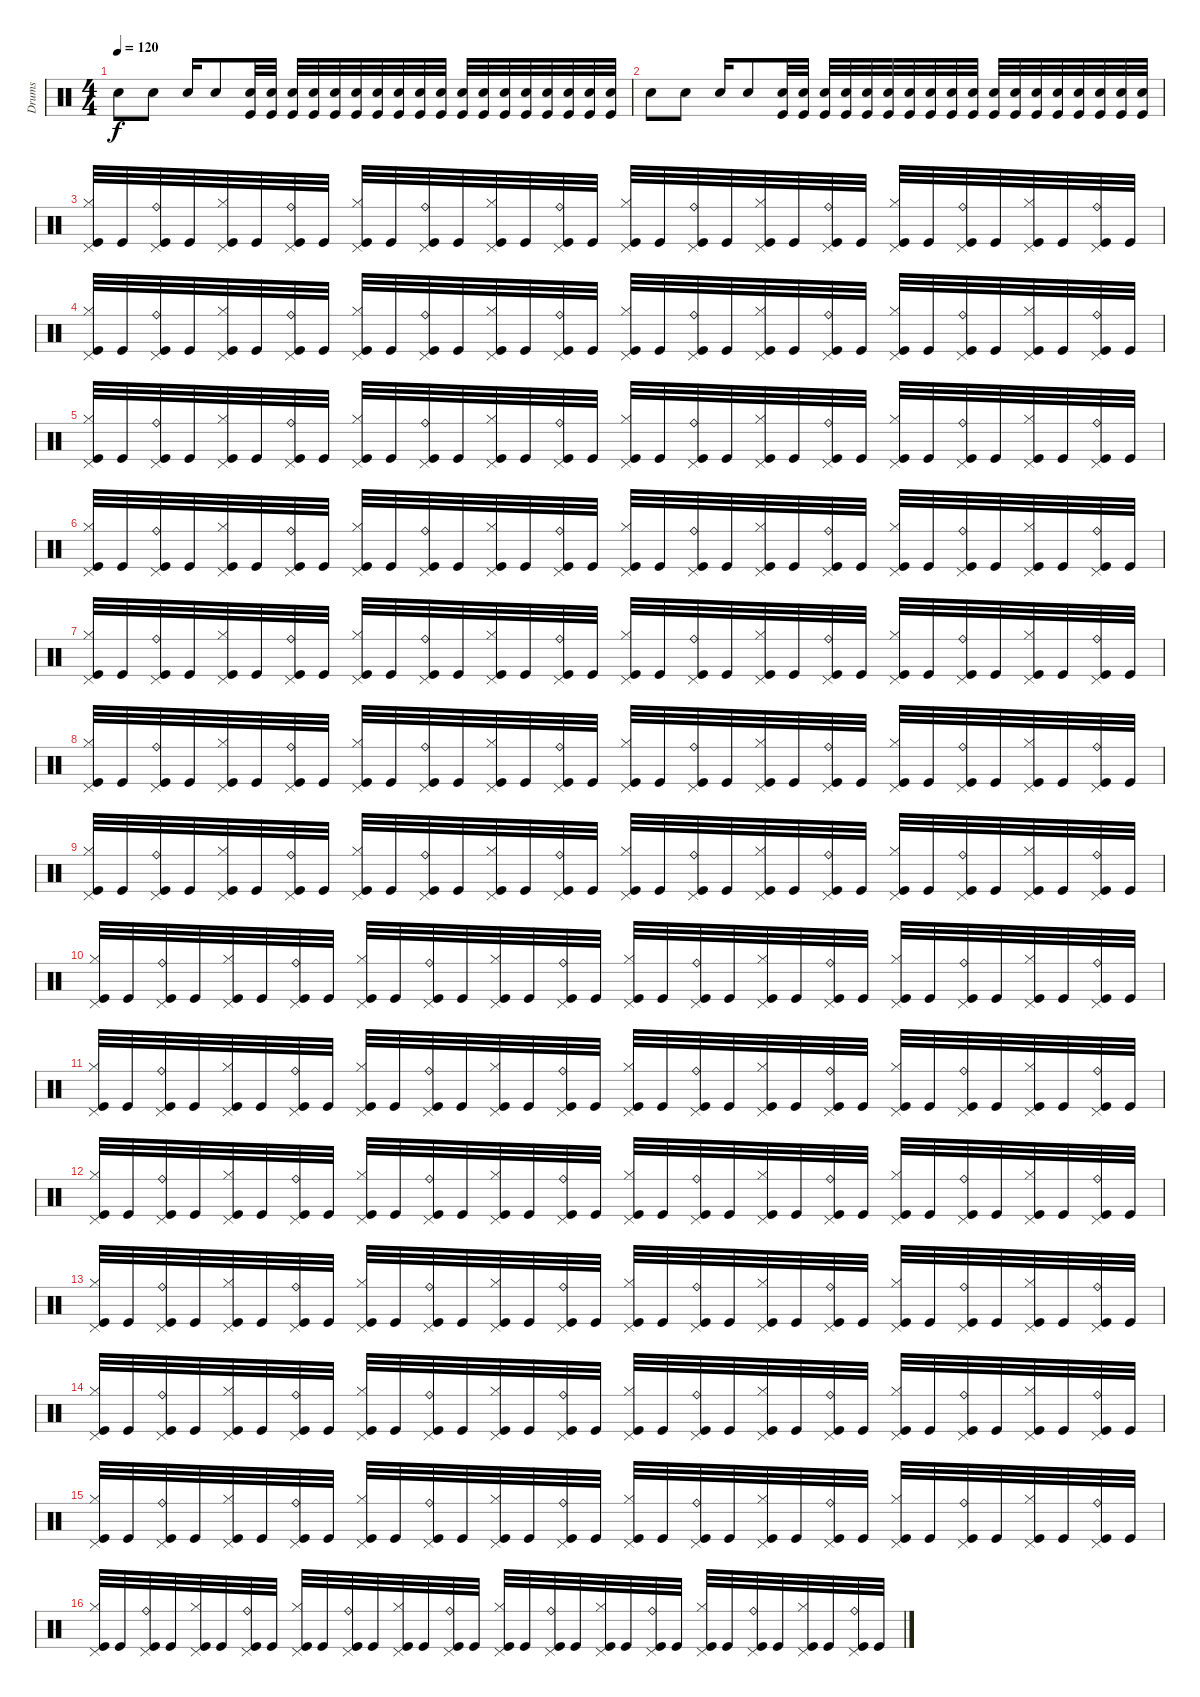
\track ("Drums" "Drums") {instrument percussion}
\staff {score}
\articulation defaults
\ts (4 4)
\tempo 120
\clef neutral
\ks c "Electric Snare (hit)".8{dy f} "Electric Snare (hit)".8 "Electric Snare (hit)".16 "Electric Snare (hit)".8
("Kick (hit)" "Electric Snare (hit)").32 ("Kick (hit)" "Electric Snare (hit)").32 ("Kick (hit)" "Electric Snare (hit)").32 ("Kick (hit)" "Electric Snare (hit)").32 ("Kick (hit)" "Electric Snare (hit)").32 ("Kick (hit)" "Electric Snare (hit)").32 ("Kick (hit)" "Electric Snare (hit)").32 ("Kick (hit)" "Electric Snare (hit)").32 ("Kick (hit)" "Electric Snare (hit)").32 ("Kick (hit)" "Electric Snare (hit)").32 ("Kick (hit)" "Electric Snare (hit)").32 ("Kick (hit)" "Electric Snare (hit)").32 ("Kick (hit)" "Electric Snare (hit)").32 ("Kick (hit)" "Electric Snare (hit)").32 ("Kick (hit)" "Electric Snare (hit)").32 ("Kick (hit)" "Electric Snare (hit)").32 ("Kick (hit)" "Electric Snare (hit)").32 ("Kick (hit)" "Electric Snare (hit)").32 |
"Electric Snare (hit)".8 "Electric Snare (hit)".8 "Electric Snare (hit)".16 "Electric Snare (hit)".8 ("Kick (hit)" "Electric Snare (hit)").32 ("Kick (hit)" "Electric Snare (hit)").32 ("Kick (hit)" "Electric Snare (hit)").32 ("Kick (hit)" "Electric Snare (hit)").32 ("Kick (hit)" "Electric Snare (hit)").32 ("Kick (hit)" "Electric Snare (hit)").32 ("Kick (hit)" "Electric Snare (hit)").32 ("Kick (hit)" "Electric Snare (hit)").32 ("Kick (hit)" "Electric Snare (hit)").32 ("Kick (hit)" "Electric Snare (hit)").32 ("Kick (hit)" "Electric Snare (hit)").32 ("Kick (hit)" "Electric Snare (hit)").32 ("Kick (hit)" "Electric Snare (hit)").32 ("Kick (hit)" "Electric Snare (hit)").32 ("Kick (hit)" "Electric Snare (hit)").32 ("Kick (hit)" "Electric Snare (hit)").32 ("Kick (hit)" "Electric Snare (hit)").32 ("Kick (hit)" "Electric Snare (hit)").32 |
("Hi-Hat (closed)" "Pedal Hi-Hat (hit)" "Kick (hit)").32 "Kick (hit)".32 ("Ride (bell)" "Pedal Hi-Hat (hit)" "Kick (hit)").32 "Kick (hit)".32 ("Hi-Hat (closed)" "Pedal Hi-Hat (hit)" "Kick (hit)").32 "Kick (hit)".32 ("Ride (bell)" "Pedal Hi-Hat (hit)" "Kick (hit)").32 "Kick (hit)".32 ("Hi-Hat (closed)" "Pedal Hi-Hat (hit)" "Kick (hit)").32 "Kick (hit)".32 ("Ride (bell)" "Pedal Hi-Hat (hit)" "Kick (hit)").32 "Kick (hit)".32 ("Hi-Hat (closed)" "Pedal Hi-Hat (hit)" "Kick (hit)").32 "Kick (hit)".32 ("Ride (bell)" "Pedal Hi-Hat (hit)" "Kick (hit)").32 "Kick (hit)".32 ("Hi-Hat (closed)" "Pedal Hi-Hat (hit)" "Kick (hit)").32 "Kick (hit)".32 ("Ride (bell)" "Pedal Hi-Hat (hit)" "Kick (hit)").32 "Kick (hit)".32 ("Hi-Hat (closed)" "Pedal Hi-Hat (hit)" "Kick (hit)").32 "Kick (hit)".32 ("Ride (bell)" "Pedal Hi-Hat (hit)" "Kick (hit)").32 "Kick (hit)".32 ("Hi-Hat (closed)" "Pedal Hi-Hat (hit)" "Kick (hit)").32 "Kick (hit)".32 ("Ride (bell)" "Pedal Hi-Hat (hit)" "Kick (hit)").32 "Kick (hit)".32 ("Hi-Hat (closed)" "Pedal Hi-Hat (hit)" "Kick (hit)").32 "Kick (hit)".32 ("Ride (bell)" "Pedal Hi-Hat (hit)" "Kick (hit)").32 "Kick (hit)".32 |
("Hi-Hat (closed)" "Pedal Hi-Hat (hit)" "Kick (hit)").32 "Kick (hit)".32 ("Ride (bell)" "Pedal Hi-Hat (hit)" "Kick (hit)").32 "Kick (hit)".32 ("Hi-Hat (closed)" "Pedal Hi-Hat (hit)" "Kick (hit)").32 "Kick (hit)".32 ("Ride (bell)" "Pedal Hi-Hat (hit)" "Kick (hit)").32 "Kick (hit)".32 ("Hi-Hat (closed)" "Pedal Hi-Hat (hit)" "Kick (hit)").32 "Kick (hit)".32 ("Ride (bell)" "Pedal Hi-Hat (hit)" "Kick (hit)").32 "Kick (hit)".32 ("Hi-Hat (closed)" "Pedal Hi-Hat (hit)" "Kick (hit)").32 "Kick (hit)".32 ("Ride (bell)" "Pedal Hi-Hat (hit)" "Kick (hit)").32 "Kick (hit)".32 ("Hi-Hat (closed)" "Pedal Hi-Hat (hit)" "Kick (hit)").32 "Kick (hit)".32 ("Ride (bell)" "Pedal Hi-Hat (hit)" "Kick (hit)").32 "Kick (hit)".32 ("Hi-Hat (closed)" "Pedal Hi-Hat (hit)" "Kick (hit)").32 "Kick (hit)".32 ("Ride (bell)" "Pedal Hi-Hat (hit)" "Kick (hit)").32 "Kick (hit)".32 ("Hi-Hat (closed)" "Pedal Hi-Hat (hit)" "Kick (hit)").32 "Kick (hit)".32 ("Ride (bell)" "Pedal Hi-Hat (hit)" "Kick (hit)").32 "Kick (hit)".32 ("Hi-Hat (closed)" "Pedal Hi-Hat (hit)" "Kick (hit)").32 "Kick (hit)".32 ("Ride (bell)" "Pedal Hi-Hat (hit)" "Kick (hit)").32 "Kick (hit)".32 |
("Hi-Hat (closed)" "Pedal Hi-Hat (hit)" "Kick (hit)").32 "Kick (hit)".32 ("Ride (bell)" "Pedal Hi-Hat (hit)" "Kick (hit)").32 "Kick (hit)".32 ("Hi-Hat (closed)" "Pedal Hi-Hat (hit)" "Kick (hit)").32 "Kick (hit)".32 ("Ride (bell)" "Pedal Hi-Hat (hit)" "Kick (hit)").32 "Kick (hit)".32 ("Hi-Hat (closed)" "Pedal Hi-Hat (hit)" "Kick (hit)").32 "Kick (hit)".32 ("Ride (bell)" "Pedal Hi-Hat (hit)" "Kick (hit)").32 "Kick (hit)".32 ("Hi-Hat (closed)" "Pedal Hi-Hat (hit)" "Kick (hit)").32 "Kick (hit)".32 ("Ride (bell)" "Pedal Hi-Hat (hit)" "Kick (hit)").32 "Kick (hit)".32 ("Hi-Hat (closed)" "Pedal Hi-Hat (hit)" "Kick (hit)").32 "Kick (hit)".32 ("Ride (bell)" "Pedal Hi-Hat (hit)" "Kick (hit)").32 "Kick (hit)".32 ("Hi-Hat (closed)" "Pedal Hi-Hat (hit)" "Kick (hit)").32 "Kick (hit)".32 ("Ride (bell)" "Pedal Hi-Hat (hit)" "Kick (hit)").32 "Kick (hit)".32 ("Hi-Hat (closed)" "Pedal Hi-Hat (hit)" "Kick (hit)").32 "Kick (hit)".32 ("Ride (bell)" "Pedal Hi-Hat (hit)" "Kick (hit)").32 "Kick (hit)".32 ("Hi-Hat (closed)" "Pedal Hi-Hat (hit)" "Kick (hit)").32 "Kick (hit)".32 ("Ride (bell)" "Pedal Hi-Hat (hit)" "Kick (hit)").32 "Kick (hit)".32 |
("Hi-Hat (closed)" "Pedal Hi-Hat (hit)" "Kick (hit)").32 "Kick (hit)".32 ("Ride (bell)" "Pedal Hi-Hat (hit)" "Kick (hit)").32 "Kick (hit)".32 ("Hi-Hat (closed)" "Pedal Hi-Hat (hit)" "Kick (hit)").32 "Kick (hit)".32 ("Ride (bell)" "Pedal Hi-Hat (hit)" "Kick (hit)").32 "Kick (hit)".32 ("Hi-Hat (closed)" "Pedal Hi-Hat (hit)" "Kick (hit)").32 "Kick (hit)".32 ("Ride (bell)" "Pedal Hi-Hat (hit)" "Kick (hit)").32 "Kick (hit)".32 ("Hi-Hat (closed)" "Pedal Hi-Hat (hit)" "Kick (hit)").32 "Kick (hit)".32 ("Ride (bell)" "Pedal Hi-Hat (hit)" "Kick (hit)").32 "Kick (hit)".32 ("Hi-Hat (closed)" "Pedal Hi-Hat (hit)" "Kick (hit)").32 "Kick (hit)".32 ("Ride (bell)" "Pedal Hi-Hat (hit)" "Kick (hit)").32 "Kick (hit)".32 ("Hi-Hat (closed)" "Pedal Hi-Hat (hit)" "Kick (hit)").32 "Kick (hit)".32 ("Ride (bell)" "Pedal Hi-Hat (hit)" "Kick (hit)").32 "Kick (hit)".32 ("Hi-Hat (closed)" "Pedal Hi-Hat (hit)" "Kick (hit)").32 "Kick (hit)".32 ("Ride (bell)" "Pedal Hi-Hat (hit)" "Kick (hit)").32 "Kick (hit)".32 ("Hi-Hat (closed)" "Pedal Hi-Hat (hit)" "Kick (hit)").32 "Kick (hit)".32 ("Ride (bell)" "Pedal Hi-Hat (hit)" "Kick (hit)").32 "Kick (hit)".32 |
("Hi-Hat (closed)" "Pedal Hi-Hat (hit)" "Kick (hit)").32 "Kick (hit)".32 ("Ride (bell)" "Pedal Hi-Hat (hit)" "Kick (hit)").32 "Kick (hit)".32 ("Hi-Hat (closed)" "Pedal Hi-Hat (hit)" "Kick (hit)").32 "Kick (hit)".32 ("Ride (bell)" "Pedal Hi-Hat (hit)" "Kick (hit)").32 "Kick (hit)".32 ("Hi-Hat (closed)" "Pedal Hi-Hat (hit)" "Kick (hit)").32 "Kick (hit)".32 ("Ride (bell)" "Pedal Hi-Hat (hit)" "Kick (hit)").32 "Kick (hit)".32 ("Hi-Hat (closed)" "Pedal Hi-Hat (hit)" "Kick (hit)").32 "Kick (hit)".32 ("Ride (bell)" "Pedal Hi-Hat (hit)" "Kick (hit)").32 "Kick (hit)".32 ("Hi-Hat (closed)" "Pedal Hi-Hat (hit)" "Kick (hit)").32 "Kick (hit)".32 ("Ride (bell)" "Pedal Hi-Hat (hit)" "Kick (hit)").32 "Kick (hit)".32 ("Hi-Hat (closed)" "Pedal Hi-Hat (hit)" "Kick (hit)").32 "Kick (hit)".32 ("Ride (bell)" "Pedal Hi-Hat (hit)" "Kick (hit)").32 "Kick (hit)".32 ("Hi-Hat (closed)" "Pedal Hi-Hat (hit)" "Kick (hit)").32 "Kick (hit)".32 ("Ride (bell)" "Pedal Hi-Hat (hit)" "Kick (hit)").32 "Kick (hit)".32 ("Hi-Hat (closed)" "Pedal Hi-Hat (hit)" "Kick (hit)").32 "Kick (hit)".32 ("Ride (bell)" "Pedal Hi-Hat (hit)" "Kick (hit)").32 "Kick (hit)".32 |
("Hi-Hat (closed)" "Pedal Hi-Hat (hit)" "Kick (hit)").32 "Kick (hit)".32 ("Ride (bell)" "Pedal Hi-Hat (hit)" "Kick (hit)").32 "Kick (hit)".32 ("Hi-Hat (closed)" "Pedal Hi-Hat (hit)" "Kick (hit)").32 "Kick (hit)".32 ("Ride (bell)" "Pedal Hi-Hat (hit)" "Kick (hit)").32 "Kick (hit)".32 ("Hi-Hat (closed)" "Pedal Hi-Hat (hit)" "Kick (hit)").32 "Kick (hit)".32 ("Ride (bell)" "Pedal Hi-Hat (hit)" "Kick (hit)").32 "Kick (hit)".32 ("Hi-Hat (closed)" "Pedal Hi-Hat (hit)" "Kick (hit)").32 "Kick (hit)".32 ("Ride (bell)" "Pedal Hi-Hat (hit)" "Kick (hit)").32 "Kick (hit)".32 ("Hi-Hat (closed)" "Pedal Hi-Hat (hit)" "Kick (hit)").32 "Kick (hit)".32 ("Ride (bell)" "Pedal Hi-Hat (hit)" "Kick (hit)").32 "Kick (hit)".32 ("Hi-Hat (closed)" "Pedal Hi-Hat (hit)" "Kick (hit)").32 "Kick (hit)".32 ("Ride (bell)" "Pedal Hi-Hat (hit)" "Kick (hit)").32 "Kick (hit)".32 ("Hi-Hat (closed)" "Pedal Hi-Hat (hit)" "Kick (hit)").32 "Kick (hit)".32 ("Ride (bell)" "Pedal Hi-Hat (hit)" "Kick (hit)").32 "Kick (hit)".32 ("Hi-Hat (closed)" "Pedal Hi-Hat (hit)" "Kick (hit)").32 "Kick (hit)".32 ("Ride (bell)" "Pedal Hi-Hat (hit)" "Kick (hit)").32 "Kick (hit)".32 |
("Hi-Hat (closed)" "Pedal Hi-Hat (hit)" "Kick (hit)").32 "Kick (hit)".32 ("Ride (bell)" "Pedal Hi-Hat (hit)" "Kick (hit)").32 "Kick (hit)".32 ("Hi-Hat (closed)" "Pedal Hi-Hat (hit)" "Kick (hit)").32 "Kick (hit)".32 ("Ride (bell)" "Pedal Hi-Hat (hit)" "Kick (hit)").32 "Kick (hit)".32 ("Hi-Hat (closed)" "Pedal Hi-Hat (hit)" "Kick (hit)").32 "Kick (hit)".32 ("Ride (bell)" "Pedal Hi-Hat (hit)" "Kick (hit)").32 "Kick (hit)".32 ("Hi-Hat (closed)" "Pedal Hi-Hat (hit)" "Kick (hit)").32 "Kick (hit)".32 ("Ride (bell)" "Pedal Hi-Hat (hit)" "Kick (hit)").32 "Kick (hit)".32 ("Hi-Hat (closed)" "Pedal Hi-Hat (hit)" "Kick (hit)").32 "Kick (hit)".32 ("Ride (bell)" "Pedal Hi-Hat (hit)" "Kick (hit)").32 "Kick (hit)".32 ("Hi-Hat (closed)" "Pedal Hi-Hat (hit)" "Kick (hit)").32 "Kick (hit)".32 ("Ride (bell)" "Pedal Hi-Hat (hit)" "Kick (hit)").32 "Kick (hit)".32 ("Hi-Hat (closed)" "Pedal Hi-Hat (hit)" "Kick (hit)").32 "Kick (hit)".32 ("Ride (bell)" "Pedal Hi-Hat (hit)" "Kick (hit)").32 "Kick (hit)".32 ("Hi-Hat (closed)" "Pedal Hi-Hat (hit)" "Kick (hit)").32 "Kick (hit)".32 ("Ride (bell)" "Pedal Hi-Hat (hit)" "Kick (hit)").32 "Kick (hit)".32 |
("Hi-Hat (closed)" "Pedal Hi-Hat (hit)" "Kick (hit)").32 "Kick (hit)".32 ("Ride (bell)" "Pedal Hi-Hat (hit)" "Kick (hit)").32 "Kick (hit)".32 ("Hi-Hat (closed)" "Pedal Hi-Hat (hit)" "Kick (hit)").32 "Kick (hit)".32 ("Ride (bell)" "Pedal Hi-Hat (hit)" "Kick (hit)").32 "Kick (hit)".32 ("Hi-Hat (closed)" "Pedal Hi-Hat (hit)" "Kick (hit)").32 "Kick (hit)".32 ("Ride (bell)" "Pedal Hi-Hat (hit)" "Kick (hit)").32 "Kick (hit)".32 ("Hi-Hat (closed)" "Pedal Hi-Hat (hit)" "Kick (hit)").32 "Kick (hit)".32 ("Ride (bell)" "Pedal Hi-Hat (hit)" "Kick (hit)").32 "Kick (hit)".32 ("Hi-Hat (closed)" "Pedal Hi-Hat (hit)" "Kick (hit)").32 "Kick (hit)".32 ("Ride (bell)" "Pedal Hi-Hat (hit)" "Kick (hit)").32 "Kick (hit)".32 ("Hi-Hat (closed)" "Pedal Hi-Hat (hit)" "Kick (hit)").32 "Kick (hit)".32 ("Ride (bell)" "Pedal Hi-Hat (hit)" "Kick (hit)").32 "Kick (hit)".32 ("Hi-Hat (closed)" "Pedal Hi-Hat (hit)" "Kick (hit)").32 "Kick (hit)".32 ("Ride (bell)" "Pedal Hi-Hat (hit)" "Kick (hit)").32 "Kick (hit)".32 ("Hi-Hat (closed)" "Pedal Hi-Hat (hit)" "Kick (hit)").32 "Kick (hit)".32 ("Ride (bell)" "Pedal Hi-Hat (hit)" "Kick (hit)").32 "Kick (hit)".32 |
("Hi-Hat (closed)" "Pedal Hi-Hat (hit)" "Kick (hit)").32 "Kick (hit)".32 ("Ride (bell)" "Pedal Hi-Hat (hit)" "Kick (hit)").32 "Kick (hit)".32 ("Hi-Hat (closed)" "Pedal Hi-Hat (hit)" "Kick (hit)").32 "Kick (hit)".32 ("Ride (bell)" "Pedal Hi-Hat (hit)" "Kick (hit)").32 "Kick (hit)".32 ("Hi-Hat (closed)" "Pedal Hi-Hat (hit)" "Kick (hit)").32 "Kick (hit)".32 ("Ride (bell)" "Pedal Hi-Hat (hit)" "Kick (hit)").32 "Kick (hit)".32 ("Hi-Hat (closed)" "Pedal Hi-Hat (hit)" "Kick (hit)").32 "Kick (hit)".32 ("Ride (bell)" "Pedal Hi-Hat (hit)" "Kick (hit)").32 "Kick (hit)".32 ("Hi-Hat (closed)" "Pedal Hi-Hat (hit)" "Kick (hit)").32 "Kick (hit)".32 ("Ride (bell)" "Pedal Hi-Hat (hit)" "Kick (hit)").32 "Kick (hit)".32 ("Hi-Hat (closed)" "Pedal Hi-Hat (hit)" "Kick (hit)").32 "Kick (hit)".32 ("Ride (bell)" "Pedal Hi-Hat (hit)" "Kick (hit)").32 "Kick (hit)".32 ("Hi-Hat (closed)" "Pedal Hi-Hat (hit)" "Kick (hit)").32 "Kick (hit)".32 ("Ride (bell)" "Pedal Hi-Hat (hit)" "Kick (hit)").32 "Kick (hit)".32 ("Hi-Hat (closed)" "Pedal Hi-Hat (hit)" "Kick (hit)").32 "Kick (hit)".32 ("Ride (bell)" "Pedal Hi-Hat (hit)" "Kick (hit)").32 "Kick (hit)".32 |
("Hi-Hat (closed)" "Pedal Hi-Hat (hit)" "Kick (hit)").32 "Kick (hit)".32 ("Ride (bell)" "Pedal Hi-Hat (hit)" "Kick (hit)").32 "Kick (hit)".32 ("Hi-Hat (closed)" "Pedal Hi-Hat (hit)" "Kick (hit)").32 "Kick (hit)".32 ("Ride (bell)" "Pedal Hi-Hat (hit)" "Kick (hit)").32 "Kick (hit)".32 ("Hi-Hat (closed)" "Pedal Hi-Hat (hit)" "Kick (hit)").32 "Kick (hit)".32 ("Ride (bell)" "Pedal Hi-Hat (hit)" "Kick (hit)").32 "Kick (hit)".32 ("Hi-Hat (closed)" "Pedal Hi-Hat (hit)" "Kick (hit)").32 "Kick (hit)".32 ("Ride (bell)" "Pedal Hi-Hat (hit)" "Kick (hit)").32 "Kick (hit)".32 ("Hi-Hat (closed)" "Pedal Hi-Hat (hit)" "Kick (hit)").32 "Kick (hit)".32 ("Ride (bell)" "Pedal Hi-Hat (hit)" "Kick (hit)").32 "Kick (hit)".32 ("Hi-Hat (closed)" "Pedal Hi-Hat (hit)" "Kick (hit)").32 "Kick (hit)".32 ("Ride (bell)" "Pedal Hi-Hat (hit)" "Kick (hit)").32 "Kick (hit)".32 ("Hi-Hat (closed)" "Pedal Hi-Hat (hit)" "Kick (hit)").32 "Kick (hit)".32 ("Ride (bell)" "Pedal Hi-Hat (hit)" "Kick (hit)").32 "Kick (hit)".32 ("Hi-Hat (closed)" "Pedal Hi-Hat (hit)" "Kick (hit)").32 "Kick (hit)".32 ("Ride (bell)" "Pedal Hi-Hat (hit)" "Kick (hit)").32 "Kick (hit)".32 |
("Hi-Hat (closed)" "Pedal Hi-Hat (hit)" "Kick (hit)").32 "Kick (hit)".32 ("Ride (bell)" "Pedal Hi-Hat (hit)" "Kick (hit)").32 "Kick (hit)".32 ("Hi-Hat (closed)" "Pedal Hi-Hat (hit)" "Kick (hit)").32 "Kick (hit)".32 ("Ride (bell)" "Pedal Hi-Hat (hit)" "Kick (hit)").32 "Kick (hit)".32 ("Hi-Hat (closed)" "Pedal Hi-Hat (hit)" "Kick (hit)").32 "Kick (hit)".32 ("Ride (bell)" "Pedal Hi-Hat (hit)" "Kick (hit)").32 "Kick (hit)".32 ("Hi-Hat (closed)" "Pedal Hi-Hat (hit)" "Kick (hit)").32 "Kick (hit)".32 ("Ride (bell)" "Pedal Hi-Hat (hit)" "Kick (hit)").32 "Kick (hit)".32 ("Hi-Hat (closed)" "Pedal Hi-Hat (hit)" "Kick (hit)").32 "Kick (hit)".32 ("Ride (bell)" "Pedal Hi-Hat (hit)" "Kick (hit)").32 "Kick (hit)".32 ("Hi-Hat (closed)" "Pedal Hi-Hat (hit)" "Kick (hit)").32 "Kick (hit)".32 ("Ride (bell)" "Pedal Hi-Hat (hit)" "Kick (hit)").32 "Kick (hit)".32 ("Hi-Hat (closed)" "Pedal Hi-Hat (hit)" "Kick (hit)").32 "Kick (hit)".32 ("Ride (bell)" "Pedal Hi-Hat (hit)" "Kick (hit)").32 "Kick (hit)".32 ("Hi-Hat (closed)" "Pedal Hi-Hat (hit)" "Kick (hit)").32 "Kick (hit)".32 ("Ride (bell)" "Pedal Hi-Hat (hit)" "Kick (hit)").32 "Kick (hit)".32 |
("Hi-Hat (closed)" "Pedal Hi-Hat (hit)" "Kick (hit)").32 "Kick (hit)".32 ("Ride (bell)" "Pedal Hi-Hat (hit)" "Kick (hit)").32 "Kick (hit)".32 ("Hi-Hat (closed)" "Pedal Hi-Hat (hit)" "Kick (hit)").32 "Kick (hit)".32 ("Ride (bell)" "Pedal Hi-Hat (hit)" "Kick (hit)").32 "Kick (hit)".32 ("Hi-Hat (closed)" "Pedal Hi-Hat (hit)" "Kick (hit)").32 "Kick (hit)".32 ("Ride (bell)" "Pedal Hi-Hat (hit)" "Kick (hit)").32 "Kick (hit)".32 ("Hi-Hat (closed)" "Pedal Hi-Hat (hit)" "Kick (hit)").32 "Kick (hit)".32 ("Ride (bell)" "Pedal Hi-Hat (hit)" "Kick (hit)").32 "Kick (hit)".32 ("Hi-Hat (closed)" "Pedal Hi-Hat (hit)" "Kick (hit)").32 "Kick (hit)".32 ("Ride (bell)" "Pedal Hi-Hat (hit)" "Kick (hit)").32 "Kick (hit)".32 ("Hi-Hat (closed)" "Pedal Hi-Hat (hit)" "Kick (hit)").32 "Kick (hit)".32 ("Ride (bell)" "Pedal Hi-Hat (hit)" "Kick (hit)").32 "Kick (hit)".32 ("Hi-Hat (closed)" "Pedal Hi-Hat (hit)" "Kick (hit)").32 "Kick (hit)".32 ("Ride (bell)" "Pedal Hi-Hat (hit)" "Kick (hit)").32 "Kick (hit)".32 ("Hi-Hat (closed)" "Pedal Hi-Hat (hit)" "Kick (hit)").32 "Kick (hit)".32 ("Ride (bell)" "Pedal Hi-Hat (hit)" "Kick (hit)").32 "Kick (hit)".32 |
("Hi-Hat (closed)" "Pedal Hi-Hat (hit)" "Kick (hit)").32 "Kick (hit)".32 ("Ride (bell)" "Pedal Hi-Hat (hit)" "Kick (hit)").32 "Kick (hit)".32 ("Hi-Hat (closed)" "Pedal Hi-Hat (hit)" "Kick (hit)").32 "Kick (hit)".32 ("Ride (bell)" "Pedal Hi-Hat (hit)" "Kick (hit)").32 "Kick (hit)".32 ("Hi-Hat (closed)" "Pedal Hi-Hat (hit)" "Kick (hit)").32 "Kick (hit)".32 ("Ride (bell)" "Pedal Hi-Hat (hit)" "Kick (hit)").32 "Kick (hit)".32 ("Hi-Hat (closed)" "Pedal Hi-Hat (hit)" "Kick (hit)").32 "Kick (hit)".32 ("Ride (bell)" "Pedal Hi-Hat (hit)" "Kick (hit)").32 "Kick (hit)".32 ("Hi-Hat (closed)" "Pedal Hi-Hat (hit)" "Kick (hit)").32 "Kick (hit)".32 ("Ride (bell)" "Pedal Hi-Hat (hit)" "Kick (hit)").32 "Kick (hit)".32 ("Hi-Hat (closed)" "Pedal Hi-Hat (hit)" "Kick (hit)").32 "Kick (hit)".32 ("Ride (bell)" "Pedal Hi-Hat (hit)" "Kick (hit)").32 "Kick (hit)".32 ("Hi-Hat (closed)" "Pedal Hi-Hat (hit)" "Kick (hit)").32 "Kick (hit)".32 ("Ride (bell)" "Pedal Hi-Hat (hit)" "Kick (hit)").32 "Kick (hit)".32 ("Hi-Hat (closed)" "Pedal Hi-Hat (hit)" "Kick (hit)").32 "Kick (hit)".32 ("Ride (bell)" "Pedal Hi-Hat (hit)" "Kick (hit)").32 "Kick (hit)".32 |
("Hi-Hat (closed)" "Pedal Hi-Hat (hit)" "Kick (hit)").32 "Kick (hit)".32 ("Ride (bell)" "Pedal Hi-Hat (hit)" "Kick (hit)").32 "Kick (hit)".32 ("Hi-Hat (closed)" "Pedal Hi-Hat (hit)" "Kick (hit)").32 "Kick (hit)".32 ("Ride (bell)" "Pedal Hi-Hat (hit)" "Kick (hit)").32 "Kick (hit)".32 ("Hi-Hat (closed)" "Pedal Hi-Hat (hit)" "Kick (hit)").32 "Kick (hit)".32 ("Ride (bell)" "Pedal Hi-Hat (hit)" "Kick (hit)").32 "Kick (hit)".32 ("Hi-Hat (closed)" "Pedal Hi-Hat (hit)" "Kick (hit)").32 "Kick (hit)".32 ("Ride (bell)" "Pedal Hi-Hat (hit)" "Kick (hit)").32 "Kick (hit)".32 ("Hi-Hat (closed)" "Pedal Hi-Hat (hit)" "Kick (hit)").32 "Kick (hit)".32 ("Ride (bell)" "Pedal Hi-Hat (hit)" "Kick (hit)").32 "Kick (hit)".32 ("Hi-Hat (closed)" "Pedal Hi-Hat (hit)" "Kick (hit)").32 "Kick (hit)".32 ("Ride (bell)" "Pedal Hi-Hat (hit)" "Kick (hit)").32 "Kick (hit)".32 ("Hi-Hat (closed)" "Pedal Hi-Hat (hit)" "Kick (hit)").32 "Kick (hit)".32 ("Ride (bell)" "Pedal Hi-Hat (hit)" "Kick (hit)").32 "Kick (hit)".32 ("Hi-Hat (closed)" "Pedal Hi-Hat (hit)" "Kick (hit)").32 "Kick (hit)".32 ("Ride (bell)" "Pedal Hi-Hat (hit)" "Kick (hit)").32 "Kick (hit)".32
